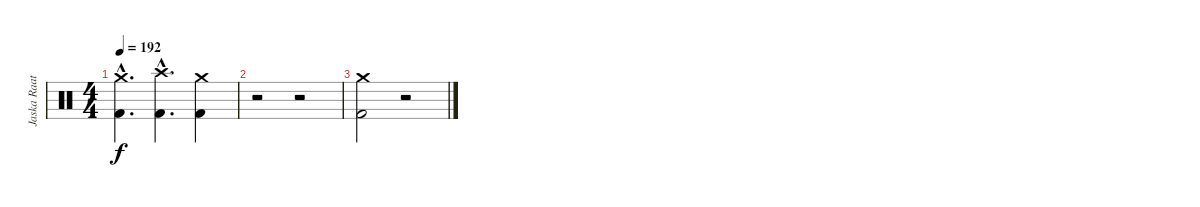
\track ("Jaska Raatikainen" "Jaska Raat") {instrument percussion}
\staff {score}
\articulation defaults
\ts (4 4)
\tempo 192
\clef neutral
\ks c
("Crash medium (hit)"{hac} "Kick (hit) 2"{hac}).4{d dy f} ("Crash high (hit)"{hac} "Kick (hit) 2"{hac}).4{d} ("Crash medium (hit)" "Kick (hit) 2").4 |
r.2 r.2 |
("Crash medium (hit)" "Kick (hit) 2").2 r.2
